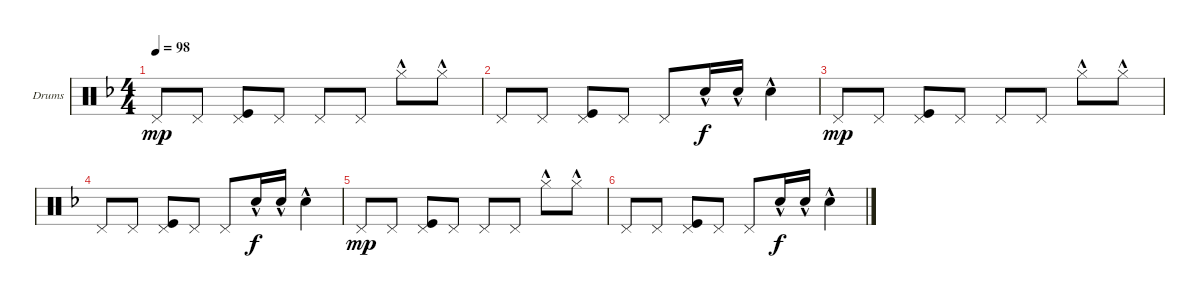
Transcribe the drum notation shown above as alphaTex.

\defaultSystemsLayout 4
\bracketExtendMode groupsimilarinstruments
\firstSystemTrackNameOrientation horizontal
\otherSystemsTrackNameOrientation horizontal
\track ("Drumkit" "Drums") {instrument percussion}
\staff {score}
\articulation defaults
\ts (4 4)
\tempo 98
\clef neutral
\scale
0.333333
\ks f "Pedal Hi-Hat (hit)".8{dy mp} "Pedal Hi-Hat (hit)".8
("Pedal Hi-Hat (hit)" "Kick (hit)").8 "Pedal Hi-Hat (hit)".8 "Pedal Hi-Hat (hit)".8 "Pedal Hi-Hat (hit)".8 "Hi-Hat (closed)"{hac}.8 "Hi-Hat (closed)"{hac}.8 |
\scale
0.333333 "Pedal Hi-Hat (hit)".8 "Pedal Hi-Hat (hit)".8 ("Pedal Hi-Hat (hit)" "Kick (hit)").8 "Pedal Hi-Hat (hit)".8 "Pedal Hi-Hat (hit)".8 "Snare (hit) 2"{hac}.16{dy f} "Snare (hit) 2"{hac}.16 "Snare (hit) 2"{hac}.4 |
\scale
0.333333 "Pedal Hi-Hat (hit)".8{dy mp} "Pedal Hi-Hat (hit)".8 ("Pedal Hi-Hat (hit)" "Kick (hit)").8 "Pedal Hi-Hat (hit)".8 "Pedal Hi-Hat (hit)".8 "Pedal Hi-Hat (hit)".8 "Hi-Hat (closed)"{hac}.8 "Hi-Hat (closed)"{hac}.8 |
\scale
0.333333 "Pedal Hi-Hat (hit)".8 "Pedal Hi-Hat (hit)".8 ("Pedal Hi-Hat (hit)" "Kick (hit)").8 "Pedal Hi-Hat (hit)".8 "Pedal Hi-Hat (hit)".8 "Snare (hit) 2"{hac}.16{dy f} "Snare (hit) 2"{hac}.16 "Snare (hit) 2"{hac}.4 |
"Pedal Hi-Hat (hit)".8{dy mp} "Pedal Hi-Hat (hit)".8 ("Pedal Hi-Hat (hit)" "Kick (hit)").8 "Pedal Hi-Hat (hit)".8 "Pedal Hi-Hat (hit)".8 "Pedal Hi-Hat (hit)".8 "Hi-Hat (closed)"{hac}.8 "Hi-Hat (closed)"{hac}.8 |
"Pedal Hi-Hat (hit)".8 "Pedal Hi-Hat (hit)".8 ("Pedal Hi-Hat (hit)" "Kick (hit)").8 "Pedal Hi-Hat (hit)".8 "Pedal Hi-Hat (hit)".8 "Snare (hit) 2"{hac}.16{dy f} "Snare (hit) 2"{hac}.16 "Snare (hit) 2"{hac}.4
